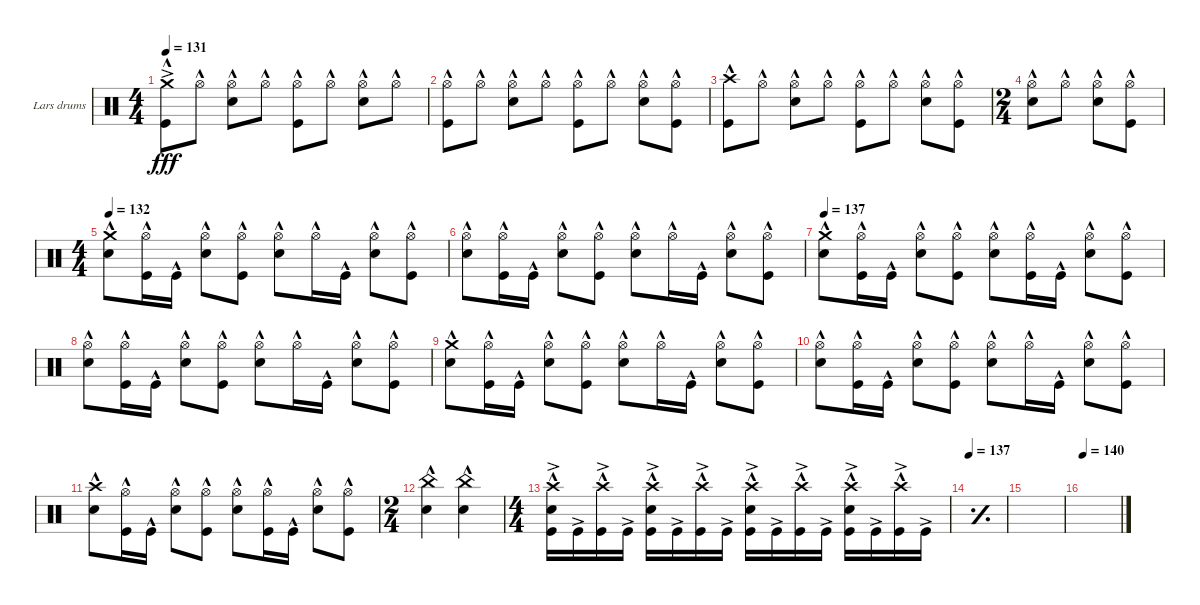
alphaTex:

\defaultSystemsLayout 4
\bracketExtendMode groupsimilarinstruments
\firstSystemTrackNameOrientation horizontal
\otherSystemsTrackNameOrientation horizontal
\track ("Lars drums" "Lars drums") {instrument percussion}
\staff {score}
\articulation defaults
\ts (4 4)
\tempo 131
\clef neutral
\ks c
("Crash medium (hit)"{ac} "Kick (hit)"{hac}).8{dy fff} "Hi-Hat (open)"{hac}.8 ("Hi-Hat (open)"{hac} "Snare (hit) 2"{hac}).8 "Hi-Hat (open)"{hac}.8 ("Hi-Hat (open)"{hac} "Kick (hit)"{hac}).8 "Hi-Hat (open)"{hac}.8 ("Hi-Hat (open)"{hac} "Snare (hit) 2"{hac}).8 "Hi-Hat (open)"{hac}.8 |
("Hi-Hat (open)"{hac} "Kick (hit)"{hac}).8 "Hi-Hat (open)"{hac}.8 ("Hi-Hat (open)"{hac} "Snare (hit) 2"{hac}).8 "Hi-Hat (open)"{hac}.8 ("Hi-Hat (open)"{hac} "Kick (hit)"{hac}).8 "Hi-Hat (open)"{hac}.8 ("Hi-Hat (open)"{hac} "Snare (hit) 2"{hac}).8 ("Hi-Hat (open)"{hac} "Kick (hit)"{hac}).8 |
("Crash high (hit)"{hac} "Kick (hit)"{hac}).8 "Hi-Hat (open)"{hac}.8 ("Hi-Hat (open)"{hac} "Snare (hit) 2"{hac}).8 "Hi-Hat (open)"{hac}.8 ("Hi-Hat (open)"{hac} "Kick (hit)"{hac}).8 "Hi-Hat (open)"{hac}.8 ("Hi-Hat (open)"{hac} "Snare (hit) 2"{hac}).8 ("Hi-Hat (open)"{hac} "Kick (hit)"{hac}).8 |
\ts (2 4)
("Hi-Hat (open)"{hac} "Snare (hit) 2"{hac}).8 "Hi-Hat (open)"{hac}.8 ("Hi-Hat (open)"{hac} "Snare (hit) 2"{hac}).8 ("Hi-Hat (open)"{hac} "Kick (hit)"{hac}).8 |
\ts (4 4)
\tempo 132
("Crash medium (hit)"{hac} "Snare (hit) 2"{hac}).8 ("Hi-Hat (open)"{hac} "Kick (hit)"{hac}).16 "Kick (hit)"{hac}.16 ("Hi-Hat (open)"{hac} "Snare (hit) 2"{hac}).8 ("Hi-Hat (open)"{hac} "Kick (hit)"{hac}).8 ("Hi-Hat (open)"{hac} "Snare (hit) 2"{hac}).8 "Hi-Hat (open)"{hac}.16 "Kick (hit)"{hac}.16 ("Hi-Hat (open)"{hac} "Snare (hit) 2"{hac}).8 ("Hi-Hat (open)"{hac} "Kick (hit)"{hac}).8 |
("Hi-Hat (open)"{hac} "Snare (hit) 2"{hac}).8 ("Hi-Hat (open)"{hac} "Kick (hit)"{hac}).16 "Kick (hit)"{hac}.16 ("Hi-Hat (open)"{hac} "Snare (hit) 2"{hac}).8 ("Hi-Hat (open)"{hac} "Kick (hit)"{hac}).8 ("Hi-Hat (open)"{hac} "Snare (hit) 2"{hac}).8 "Hi-Hat (open)"{hac}.16 "Kick (hit)"{hac}.16 ("Hi-Hat (open)"{hac} "Snare (hit) 2"{hac}).8 ("Hi-Hat (open)"{hac} "Kick (hit)"{hac}).8 |
\tempo 137
("Crash medium (hit)"{hac} "Snare (hit) 2"{hac}).8 ("Hi-Hat (open)"{hac} "Kick (hit)"{hac}).16 "Kick (hit)"{hac}.16 ("Hi-Hat (open)"{hac} "Snare (hit) 2"{hac}).8 ("Hi-Hat (open)"{hac} "Kick (hit)"{hac}).8 ("Hi-Hat (open)"{hac} "Snare (hit) 2"{hac}).8 ("Hi-Hat (open)"{hac} "Kick (hit)"{hac}).16 "Kick (hit)"{hac}.16 ("Hi-Hat (open)"{hac} "Snare (hit) 2"{hac}).8 ("Hi-Hat (open)"{hac} "Kick (hit)"{hac}).8 |
("Hi-Hat (open)"{hac} "Snare (hit) 2"{hac}).8 ("Hi-Hat (open)"{hac} "Kick (hit)"{hac}).16 "Kick (hit)"{hac}.16 ("Hi-Hat (open)"{hac} "Snare (hit) 2"{hac}).8 ("Hi-Hat (open)"{hac} "Kick (hit)"{hac}).8 ("Hi-Hat (open)"{hac} "Snare (hit) 2"{hac}).8 "Hi-Hat (open)"{hac}.16 "Kick (hit)"{hac}.16 ("Hi-Hat (open)"{hac} "Snare (hit) 2"{hac}).8 ("Hi-Hat (open)"{hac} "Kick (hit)"{hac}).8 |
("Crash medium (hit)"{hac} "Snare (hit) 2"{hac}).8 ("Hi-Hat (open)"{hac} "Kick (hit)"{hac}).16 "Kick (hit)"{hac}.16 ("Hi-Hat (open)"{hac} "Snare (hit) 2"{hac}).8 ("Hi-Hat (open)"{hac} "Kick (hit)"{hac}).8 ("Hi-Hat (open)"{hac} "Snare (hit) 2"{hac}).8 "Hi-Hat (open)"{hac}.16 "Kick (hit)"{hac}.16 ("Hi-Hat (open)"{hac} "Snare (hit) 2"{hac}).8 ("Hi-Hat (open)"{hac} "Kick (hit)"{hac}).8 |
("Hi-Hat (open)"{hac} "Snare (hit) 2"{hac}).8 ("Hi-Hat (open)"{hac} "Kick (hit)"{hac}).16 "Kick (hit)"{hac}.16 ("Hi-Hat (open)"{hac} "Snare (hit) 2"{hac}).8 ("Hi-Hat (open)"{hac} "Kick (hit)"{hac}).8 ("Hi-Hat (open)"{hac} "Snare (hit) 2"{hac}).8 "Hi-Hat (open)"{hac}.16 "Kick (hit)"{hac}.16 ("Hi-Hat (open)"{hac} "Snare (hit) 2"{hac}).8 ("Hi-Hat (open)"{hac} "Kick (hit)"{hac}).8 |
("Crash high (hit)"{hac} "Snare (hit) 2"{hac}).8 ("Hi-Hat (open)"{hac} "Kick (hit)"{hac}).16 "Kick (hit)"{hac}.16 ("Hi-Hat (open)"{hac} "Snare (hit) 2"{hac}).8 ("Hi-Hat (open)"{hac} "Kick (hit)"{hac}).8 ("Hi-Hat (open)"{hac} "Snare (hit) 2"{hac}).8 ("Hi-Hat (open)"{hac} "Kick (hit)"{hac}).16 "Kick (hit)"{hac}.16 ("Hi-Hat (open)"{hac} "Snare (hit) 2"{hac}).8 ("Hi-Hat (open)"{hac} "Kick (hit)"{hac}).8 |
\ts (2 4)
("Snare (hit) 2"{hac} "China (hit)"{hac}).4 ("Snare (hit) 2"{hac} "China (hit)"{hac}).4 |
\ts (4 4)
("Crash high (hit)"{hac} "Snare (hit) 2"{hac} "Kick (hit)"{ac}).16 "Kick (hit)"{ac}.16 ("Crash high (hit)"{hac} "Kick (hit)"{ac}).16 "Kick (hit)"{ac}.16 ("Crash high (hit)"{hac} "Snare (hit) 2"{hac} "Kick (hit)"{ac}).16 "Kick (hit)"{ac}.16 ("Crash high (hit)"{hac} "Kick (hit)"{ac}).16 "Kick (hit)"{ac}.16 ("Crash high (hit)"{hac} "Snare (hit) 2"{hac} "Kick (hit)"{ac}).16 "Kick (hit)"{ac}.16 ("Crash high (hit)"{hac} "Kick (hit)"{ac}).16 "Kick (hit)"{ac}.16 ("Crash high (hit)"{hac} "Snare (hit) 2"{hac} "Kick (hit)"{ac}).16 "Kick (hit)"{ac}.16 ("Crash high (hit)"{hac} "Kick (hit)"{ac}).16 "Kick (hit)"{ac}.16 |
\tempo 137
\simile simple
|
|
\tempo 140
